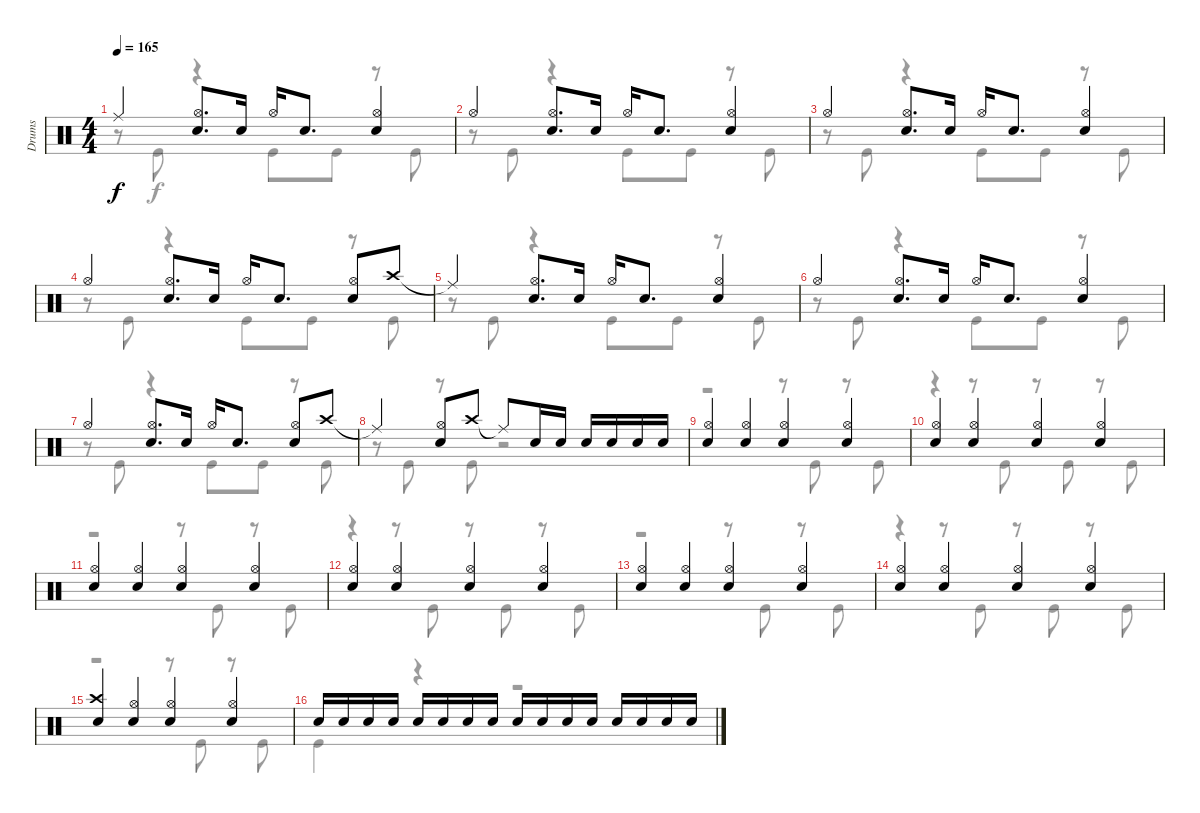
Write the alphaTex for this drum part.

\track ("Drums" "Drums") {instrument percussion}
\staff {score}
\articulation defaults
\voice
\ts (4 4)
\tempo 165
\clef neutral
\ks c "Ride (middle)"{t}.4{dy f beam Up}
("Hi-Hat (open)" "Snare (hit) 2").8{d beam Up} "Snare (hit) 2".16{beam Up} "Hi-Hat (open)".16{beam Up} "Snare (hit) 2".8{d beam Up} ("Hi-Hat (open)" "Snare (hit) 2").4{beam Up} |
"Hi-Hat (open)".4{beam Up} ("Hi-Hat (open)" "Snare (hit) 2").8{d beam Up} "Snare (hit) 2".16{beam Up} "Hi-Hat (open)".16{beam Up} "Snare (hit) 2".8{d beam Up} ("Hi-Hat (open)" "Snare (hit) 2").4{beam Up} |
"Hi-Hat (open)".4{beam Up} ("Hi-Hat (open)" "Snare (hit) 2").8{d beam Up} "Snare (hit) 2".16{beam Up} "Hi-Hat (open)".16{beam Up} "Snare (hit) 2".8{d beam Up} ("Hi-Hat (open)" "Snare (hit) 2").4{beam Up} |
"Hi-Hat (open)".4{beam Up} ("Hi-Hat (open)" "Snare (hit) 2").8{d beam Up} "Snare (hit) 2".16{beam Up} "Hi-Hat (open)".16{beam Up} "Snare (hit) 2".8{d beam Up} ("Hi-Hat (open)" "Snare (hit) 2").8{beam Up} "Crash high (hit)".8{beam Up} |
"Ride (middle)"{t}.4{beam Up} ("Hi-Hat (open)" "Snare (hit) 2").8{d beam Up} "Snare (hit) 2".16{beam Up} "Hi-Hat (open)".16{beam Up} "Snare (hit) 2".8{d beam Up} ("Hi-Hat (open)" "Snare (hit) 2").4{beam Up} |
"Hi-Hat (open)".4{beam Up} ("Hi-Hat (open)" "Snare (hit) 2").8{d beam Up} "Snare (hit) 2".16{beam Up} "Hi-Hat (open)".16{beam Up} "Snare (hit) 2".8{d beam Up} ("Hi-Hat (open)" "Snare (hit) 2").4{beam Up} |
"Hi-Hat (open)".4{beam Up} ("Hi-Hat (open)" "Snare (hit) 2").8{d beam Up} "Snare (hit) 2".16{beam Up} "Hi-Hat (open)".16{beam Up} "Snare (hit) 2".8{d beam Up} ("Hi-Hat (open)" "Snare (hit) 2").8{beam Up} "Crash high (hit)".8{beam Up} |
"Ride (middle)"{t}.4{beam Up} ("Hi-Hat (open)" "Snare (hit) 2").8{beam Up} "Crash high (hit)".8{beam Up} "Ride (middle)"{t}.8{beam Up} "Snare (hit) 2".16{beam Up} "Snare (hit) 2".16{beam Up} "Snare (hit) 2".16{beam Up} "Snare (hit) 2".16{beam Up} "Snare (hit) 2".16{beam Up} "Snare (hit) 2".16{beam Up} |
("Hi-Hat (open)" "Snare (hit) 2").4{beam Up} ("Hi-Hat (open)" "Snare (hit) 2").4{beam Up} ("Hi-Hat (open)" "Snare (hit) 2").4{beam Up} ("Hi-Hat (open)" "Snare (hit) 2").4{beam Up} |
("Hi-Hat (open)" "Snare (hit) 2").4{beam Up} ("Hi-Hat (open)" "Snare (hit) 2").4{beam Up} ("Hi-Hat (open)" "Snare (hit) 2").4{beam Up} ("Hi-Hat (open)" "Snare (hit) 2").4{beam Up} |
("Hi-Hat (open)" "Snare (hit) 2").4{beam Up} ("Hi-Hat (open)" "Snare (hit) 2").4{beam Up} ("Hi-Hat (open)" "Snare (hit) 2").4{beam Up} ("Hi-Hat (open)" "Snare (hit) 2").4{beam Up} |
("Hi-Hat (open)" "Snare (hit) 2").4{beam Up} ("Hi-Hat (open)" "Snare (hit) 2").4{beam Up} ("Hi-Hat (open)" "Snare (hit) 2").4{beam Up} ("Hi-Hat (open)" "Snare (hit) 2").4{beam Up} |
("Hi-Hat (open)" "Snare (hit) 2").4{beam Up} ("Hi-Hat (open)" "Snare (hit) 2").4{beam Up} ("Hi-Hat (open)" "Snare (hit) 2").4{beam Up} ("Hi-Hat (open)" "Snare (hit) 2").4{beam Up} |
("Hi-Hat (open)" "Snare (hit) 2").4{beam Up} ("Hi-Hat (open)" "Snare (hit) 2").4{beam Up} ("Hi-Hat (open)" "Snare (hit) 2").4{beam Up} ("Hi-Hat (open)" "Snare (hit) 2").4{beam Up} |
("Crash high (hit)" "Snare (hit) 2").4{beam Up} ("Hi-Hat (open)" "Snare (hit) 2").4{beam Up} ("Hi-Hat (open)" "Snare (hit) 2").4{beam Up} ("Hi-Hat (open)" "Snare (hit) 2").4{beam Up} |
"Snare (hit) 2".16{beam Up} "Snare (hit) 2".16{beam Up} "Snare (hit) 2".16{beam Up} "Snare (hit) 2".16{beam Up} "Snare (hit) 2".16{beam Up} "Snare (hit) 2".16{beam Up} "Snare (hit) 2".16{beam Up} "Snare (hit) 2".16{beam Up} "Snare (hit) 2".16{beam Up} "Snare (hit) 2".16{beam Up} "Snare (hit) 2".16{beam Up} "Snare (hit) 2".16{beam Up} "Snare (hit) 2".16{beam Up} "Snare (hit) 2".16{beam Up} "Snare (hit) 2".16{beam Up} "Snare (hit) 2".16{beam Up}
\voice
\clef neutral
\ottava regular
\simile none
\ks c
r.8{dy f} "Kick (hit)".8 r.4 "Kick (hit)".8 "Kick (hit)".8 r.8 "Kick (hit)".8 |
r.8 "Kick (hit)".8 r.4 "Kick (hit)".8 "Kick (hit)".8 r.8 "Kick (hit)".8 |
r.8 "Kick (hit)".8 r.4 "Kick (hit)".8 "Kick (hit)".8 r.8 "Kick (hit)".8 |
r.8 "Kick (hit)".8 r.4 "Kick (hit)".8 "Kick (hit)".8 r.8 "Kick (hit)".8 |
r.8 "Kick (hit)".8 r.4 "Kick (hit)".8 "Kick (hit)".8 r.8 "Kick (hit)".8 |
r.8 "Kick (hit)".8 r.4 "Kick (hit)".8 "Kick (hit)".8 r.8 "Kick (hit)".8 |
r.8 "Kick (hit)".8 r.4 "Kick (hit)".8 "Kick (hit)".8 r.8 "Kick (hit)".8 |
r.8 "Kick (hit)".8 r.8 "Kick (hit)".8 r.2 |
r.2 r.8 "Kick (hit)".8 r.8 "Kick (hit)".8 |
r.4 r.8 "Kick (hit)".8 r.8 "Kick (hit)".8 r.8 "Kick (hit)".8 |
r.2 r.8 "Kick (hit)".8 r.8 "Kick (hit)".8 |
r.4 r.8 "Kick (hit)".8 r.8 "Kick (hit)".8 r.8 "Kick (hit)".8 |
r.2 r.8 "Kick (hit)".8 r.8 "Kick (hit)".8 |
r.4 r.8 "Kick (hit)".8 r.8 "Kick (hit)".8 r.8 "Kick (hit)".8 |
r.2 r.8 "Kick (hit)".8 r.8 "Kick (hit)".8 |
"Kick (hit)".4 r.4 r.2
